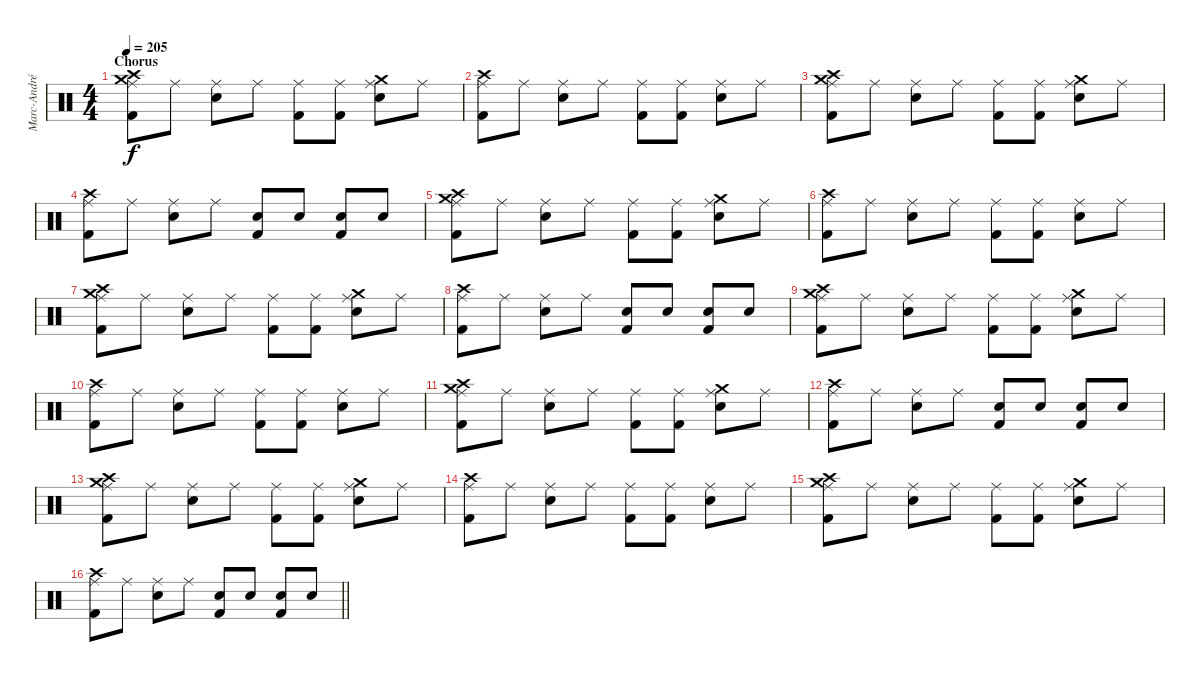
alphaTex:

\track ("Marc-André Barabé" "Marc-André") {instrument percussion}
\staff {score}
\articulation defaults
\ts (4 4)
\section ("" "Chorus")
\tempo 205
\clef neutral
\ks c
("Crash high (hit)" "Crash medium (hit)" "Ride (middle)" "Kick (hit) 2").8{dy f} "Ride (middle)".8 ("Ride (middle)" "Electric Snare (hit)").8 "Ride (middle)".8 ("Ride (middle)" "Kick (hit) 2").8 ("Ride (middle)" "Kick (hit) 2").8 ("Crash medium (hit)" "Ride (middle)" "Electric Snare (hit)").8 "Ride (middle)".8 |
("Crash high (hit)" "Ride (middle)" "Kick (hit) 2").8 "Ride (middle)".8 ("Ride (middle)" "Electric Snare (hit)").8 "Ride (middle)".8 ("Ride (middle)" "Kick (hit) 2").8 ("Ride (middle)" "Kick (hit) 2").8 ("Ride (middle)" "Electric Snare (hit)").8 "Ride (middle)".8 |
("Crash high (hit)" "Crash medium (hit)" "Ride (middle)" "Kick (hit) 2").8 "Ride (middle)".8 ("Ride (middle)" "Electric Snare (hit)").8 "Ride (middle)".8 ("Ride (middle)" "Kick (hit) 2").8 ("Ride (middle)" "Kick (hit) 2").8 ("Crash medium (hit)" "Ride (middle)" "Electric Snare (hit)").8 "Ride (middle)".8 |
("Crash high (hit)" "Ride (middle)" "Kick (hit) 2").8 "Ride (middle)".8 ("Ride (middle)" "Electric Snare (hit)").8 "Ride (middle)".8 ("Electric Snare (hit)"{tr (4 32)} "Kick (hit) 2").8 "Electric Snare (hit)"{tr (4 32)}.8 ("Electric Snare (hit)"{tr (4 32)} "Kick (hit) 2").8 "Electric Snare (hit)"{tr (4 32)}.8 |
("Crash high (hit)" "Crash medium (hit)" "Ride (middle)" "Kick (hit) 2").8 "Ride (middle)".8 ("Ride (middle)" "Electric Snare (hit)").8 "Ride (middle)".8 ("Ride (middle)" "Kick (hit) 2").8 ("Ride (middle)" "Kick (hit) 2").8 ("Crash medium (hit)" "Ride (middle)" "Electric Snare (hit)").8 "Ride (middle)".8 |
("Crash high (hit)" "Ride (middle)" "Kick (hit) 2").8 "Ride (middle)".8 ("Ride (middle)" "Electric Snare (hit)").8 "Ride (middle)".8 ("Ride (middle)" "Kick (hit) 2").8 ("Ride (middle)" "Kick (hit) 2").8 ("Ride (middle)" "Electric Snare (hit)").8 "Ride (middle)".8 |
("Crash high (hit)" "Crash medium (hit)" "Ride (middle)" "Kick (hit) 2").8 "Ride (middle)".8 ("Ride (middle)" "Electric Snare (hit)").8 "Ride (middle)".8 ("Ride (middle)" "Kick (hit) 2").8 ("Ride (middle)" "Kick (hit) 2").8 ("Crash medium (hit)" "Ride (middle)" "Electric Snare (hit)").8 "Ride (middle)".8 |
("Crash high (hit)" "Ride (middle)" "Kick (hit) 2").8 "Ride (middle)".8 ("Ride (middle)" "Electric Snare (hit)").8 "Ride (middle)".8 ("Electric Snare (hit)"{tr (4 32)} "Kick (hit) 2").8 "Electric Snare (hit)"{tr (4 32)}.8 ("Electric Snare (hit)"{tr (4 32)} "Kick (hit) 2").8 "Electric Snare (hit)"{tr (4 32)}.8 |
("Crash high (hit)" "Crash medium (hit)" "Ride (middle)" "Kick (hit) 2").8 "Ride (middle)".8 ("Ride (middle)" "Electric Snare (hit)").8 "Ride (middle)".8 ("Ride (middle)" "Kick (hit) 2").8 ("Ride (middle)" "Kick (hit) 2").8 ("Crash medium (hit)" "Ride (middle)" "Electric Snare (hit)").8 "Ride (middle)".8 |
("Crash high (hit)" "Ride (middle)" "Kick (hit) 2").8 "Ride (middle)".8 ("Ride (middle)" "Electric Snare (hit)").8 "Ride (middle)".8 ("Ride (middle)" "Kick (hit) 2").8 ("Ride (middle)" "Kick (hit) 2").8 ("Ride (middle)" "Electric Snare (hit)").8 "Ride (middle)".8 |
("Crash high (hit)" "Crash medium (hit)" "Ride (middle)" "Kick (hit) 2").8 "Ride (middle)".8 ("Ride (middle)" "Electric Snare (hit)").8 "Ride (middle)".8 ("Ride (middle)" "Kick (hit) 2").8 ("Ride (middle)" "Kick (hit) 2").8 ("Crash medium (hit)" "Ride (middle)" "Electric Snare (hit)").8 "Ride (middle)".8 |
("Crash high (hit)" "Ride (middle)" "Kick (hit) 2").8 "Ride (middle)".8 ("Ride (middle)" "Electric Snare (hit)").8 "Ride (middle)".8 ("Electric Snare (hit)"{tr (4 32)} "Kick (hit) 2").8 "Electric Snare (hit)"{tr (4 32)}.8 ("Electric Snare (hit)"{tr (4 32)} "Kick (hit) 2").8 "Electric Snare (hit)"{tr (4 32)}.8 |
("Crash high (hit)" "Crash medium (hit)" "Ride (middle)" "Kick (hit) 2").8 "Ride (middle)".8 ("Ride (middle)" "Electric Snare (hit)").8 "Ride (middle)".8 ("Ride (middle)" "Kick (hit) 2").8 ("Ride (middle)" "Kick (hit) 2").8 ("Crash medium (hit)" "Ride (middle)" "Electric Snare (hit)").8 "Ride (middle)".8 |
("Crash high (hit)" "Ride (middle)" "Kick (hit) 2").8 "Ride (middle)".8 ("Ride (middle)" "Electric Snare (hit)").8 "Ride (middle)".8 ("Ride (middle)" "Kick (hit) 2").8 ("Ride (middle)" "Kick (hit) 2").8 ("Ride (middle)" "Electric Snare (hit)").8 "Ride (middle)".8 |
("Crash high (hit)" "Crash medium (hit)" "Ride (middle)" "Kick (hit) 2").8 "Ride (middle)".8 ("Ride (middle)" "Electric Snare (hit)").8 "Ride (middle)".8 ("Ride (middle)" "Kick (hit) 2").8 ("Ride (middle)" "Kick (hit) 2").8 ("Crash medium (hit)" "Ride (middle)" "Electric Snare (hit)").8 "Ride (middle)".8 |
\barLineRight lightlight
("Crash high (hit)" "Ride (middle)" "Kick (hit) 2").8 "Ride (middle)".8 ("Ride (middle)" "Electric Snare (hit)").8 "Ride (middle)".8 ("Electric Snare (hit)"{tr (4 32)} "Kick (hit) 2").8 "Electric Snare (hit)"{tr (4 32)}.8 ("Electric Snare (hit)"{tr (4 32)} "Kick (hit) 2").8 "Electric Snare (hit)"{tr (4 32)}.8
